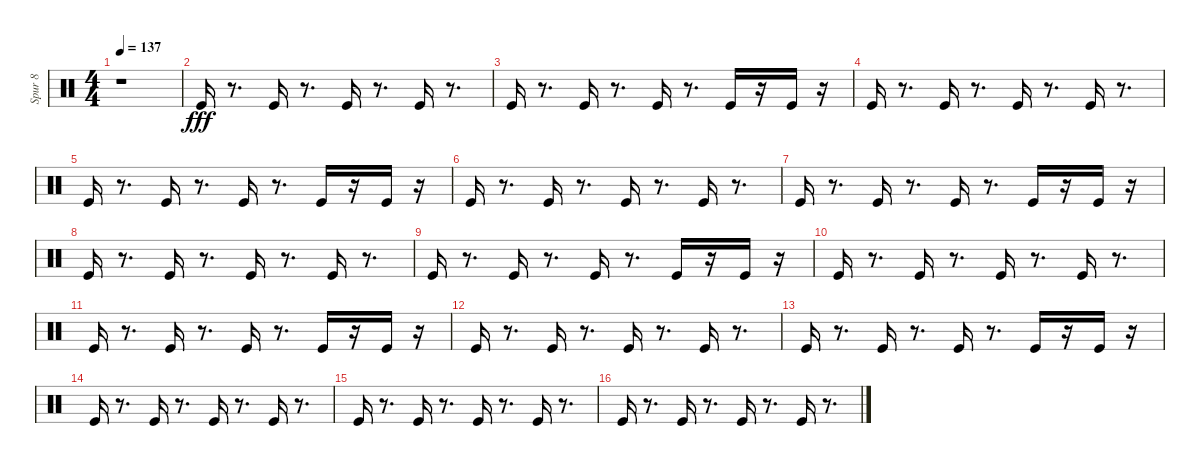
\track ("Spur 8" "Spur 8") {instrument percussion}
\staff {score}
\articulation defaults
\ts (4 4)
\tempo 137
\clef neutral
\ks c
r.1{dy fff} |
"Kick (hit)".16 r.8{d} "Kick (hit)".16 r.8{d} "Kick (hit)".16 r.8{d} "Kick (hit)".16 r.8{d} |
"Kick (hit)".16 r.8{d} "Kick (hit)".16 r.8{d} "Kick (hit)".16 r.8{d} "Kick (hit)".16 r.16 "Kick (hit)".16 r.16 |
"Kick (hit)".16 r.8{d} "Kick (hit)".16 r.8{d} "Kick (hit)".16 r.8{d} "Kick (hit)".16 r.8{d} |
"Kick (hit)".16 r.8{d} "Kick (hit)".16 r.8{d} "Kick (hit)".16 r.8{d} "Kick (hit)".16 r.16 "Kick (hit)".16 r.16 |
"Kick (hit)".16 r.8{d} "Kick (hit)".16 r.8{d} "Kick (hit)".16 r.8{d} "Kick (hit)".16 r.8{d} |
"Kick (hit)".16 r.8{d} "Kick (hit)".16 r.8{d} "Kick (hit)".16 r.8{d} "Kick (hit)".16 r.16 "Kick (hit)".16 r.16 |
"Kick (hit)".16 r.8{d} "Kick (hit)".16 r.8{d} "Kick (hit)".16 r.8{d} "Kick (hit)".16 r.8{d} |
"Kick (hit)".16 r.8{d} "Kick (hit)".16 r.8{d} "Kick (hit)".16 r.8{d} "Kick (hit)".16 r.16 "Kick (hit)".16 r.16 |
"Kick (hit)".16 r.8{d} "Kick (hit)".16 r.8{d} "Kick (hit)".16 r.8{d} "Kick (hit)".16 r.8{d} |
"Kick (hit)".16 r.8{d} "Kick (hit)".16 r.8{d} "Kick (hit)".16 r.8{d} "Kick (hit)".16 r.16 "Kick (hit)".16 r.16 |
"Kick (hit)".16 r.8{d} "Kick (hit)".16 r.8{d} "Kick (hit)".16 r.8{d} "Kick (hit)".16 r.8{d} |
"Kick (hit)".16 r.8{d} "Kick (hit)".16 r.8{d} "Kick (hit)".16 r.8{d} "Kick (hit)".16 r.16 "Kick (hit)".16 r.16 |
"Kick (hit)".16 r.8{d} "Kick (hit)".16 r.8{d} "Kick (hit)".16 r.8{d} "Kick (hit)".16 r.8{d} |
"Kick (hit)".16 r.8{d} "Kick (hit)".16 r.8{d} "Kick (hit)".16 r.8{d} "Kick (hit)".16 r.8{d} |
"Kick (hit)".16 r.8{d} "Kick (hit)".16 r.8{d} "Kick (hit)".16 r.8{d} "Kick (hit)".16 r.8{d}
